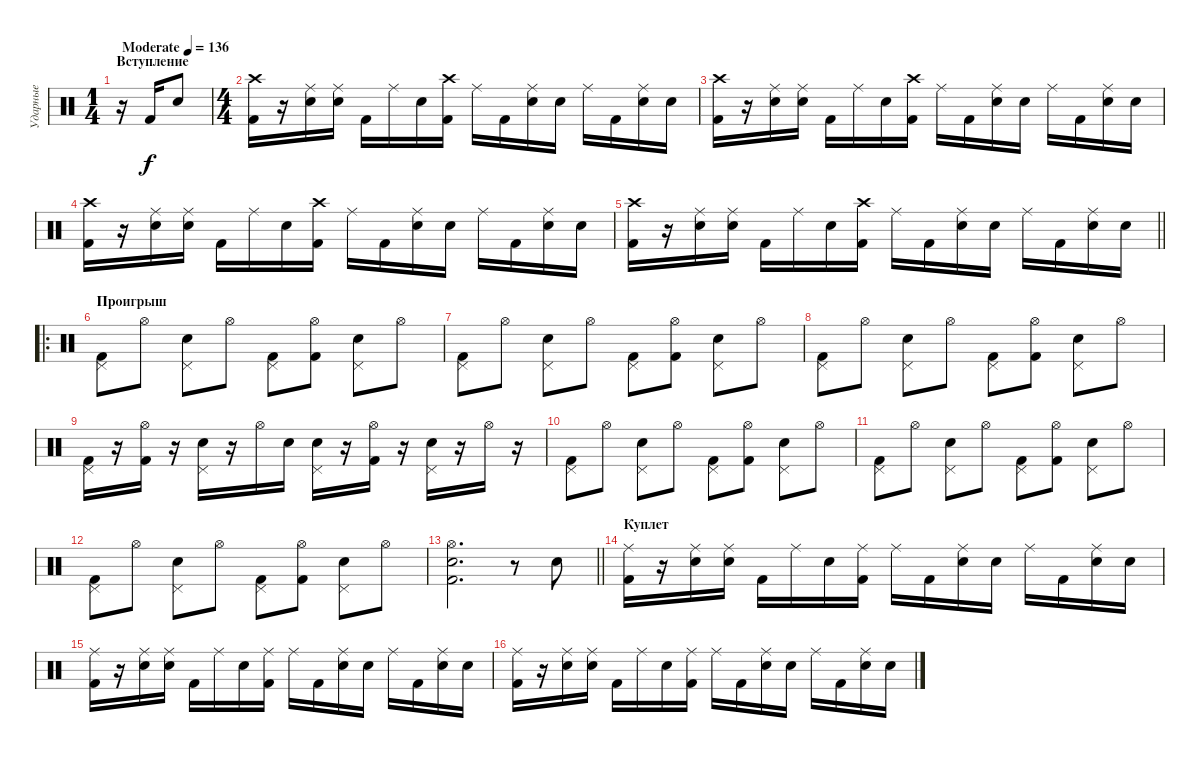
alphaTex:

\track ("Ударные" "Ударные") {instrument percussion}
\staff {score}
\articulation defaults
\ts (1 4)
\section ("" "Вступление")
\tempo (136 "Moderate")
\clef neutral
\ks c
r.16{dy f} "Kick (hit) 2".16 "Electric Snare (hit)".8 |
\ts (4 4)
("Kick (hit) 2" "Crash high (hit)").16 r.16 ("Electric Snare (hit)" "Ride (middle)").16 ("Electric Snare (hit)" "Ride (middle)").16 "Kick (hit) 2".16 "Ride (middle)".16 "Electric Snare (hit)".16 ("Kick (hit) 2" "Crash high (hit)").16 "Ride (middle)".16 "Kick (hit) 2".16 ("Electric Snare (hit)" "Ride (middle)").16 "Electric Snare (hit)".16 "Ride (middle)".16 "Kick (hit) 2".16 ("Electric Snare (hit)" "Ride (middle)").16 "Electric Snare (hit)".16 |
("Kick (hit) 2" "Crash high (hit)").16 r.16 ("Electric Snare (hit)" "Ride (middle)").16 ("Electric Snare (hit)" "Ride (middle)").16 "Kick (hit) 2".16 "Ride (middle)".16 "Electric Snare (hit)".16 ("Kick (hit) 2" "Crash high (hit)").16 "Ride (middle)".16 "Kick (hit) 2".16 ("Electric Snare (hit)" "Ride (middle)").16 "Electric Snare (hit)".16 "Ride (middle)".16 "Kick (hit) 2".16 ("Electric Snare (hit)" "Ride (middle)").16 "Electric Snare (hit)".16 |
("Kick (hit) 2" "Crash high (hit)").16 r.16 ("Electric Snare (hit)" "Ride (middle)").16 ("Electric Snare (hit)" "Ride (middle)").16 "Kick (hit) 2".16 "Ride (middle)".16 "Electric Snare (hit)".16 ("Kick (hit) 2" "Crash high (hit)").16 "Ride (middle)".16 "Kick (hit) 2".16 ("Electric Snare (hit)" "Ride (middle)").16 "Electric Snare (hit)".16 "Ride (middle)".16 "Kick (hit) 2".16 ("Electric Snare (hit)" "Ride (middle)").16 "Electric Snare (hit)".16 |
\barLineRight lightlight
("Kick (hit) 2" "Crash high (hit)").16 r.16 ("Electric Snare (hit)" "Ride (middle)").16 ("Electric Snare (hit)" "Ride (middle)").16 "Kick (hit) 2".16 "Ride (middle)".16 "Electric Snare (hit)".16 ("Kick (hit) 2" "Crash high (hit)").16 "Ride (middle)".16 "Kick (hit) 2".16 ("Electric Snare (hit)" "Ride (middle)").16 "Electric Snare (hit)".16 "Ride (middle)".16 "Kick (hit) 2".16 ("Electric Snare (hit)" "Ride (middle)").16 "Electric Snare (hit)".16 |
\ro
\section ("" "Проигрыш")
("Kick (hit) 2" "Pedal Hi-Hat (hit)").8 "Hi-Hat (open)".8 ("Electric Snare (hit)" "Pedal Hi-Hat (hit)").8 "Hi-Hat (open)".8 ("Kick (hit) 2" "Pedal Hi-Hat (hit)").8 ("Kick (hit) 2" "Hi-Hat (open)").8 ("Electric Snare (hit)" "Pedal Hi-Hat (hit)").8 "Hi-Hat (open)".8 |
("Kick (hit) 2" "Pedal Hi-Hat (hit)").8 "Hi-Hat (open)".8 ("Electric Snare (hit)" "Pedal Hi-Hat (hit)").8 "Hi-Hat (open)".8 ("Kick (hit) 2" "Pedal Hi-Hat (hit)").8 ("Kick (hit) 2" "Hi-Hat (open)").8 ("Electric Snare (hit)" "Pedal Hi-Hat (hit)").8 "Hi-Hat (open)".8 |
("Kick (hit) 2" "Pedal Hi-Hat (hit)").8 "Hi-Hat (open)".8 ("Electric Snare (hit)" "Pedal Hi-Hat (hit)").8 "Hi-Hat (open)".8 ("Kick (hit) 2" "Pedal Hi-Hat (hit)").8 ("Kick (hit) 2" "Hi-Hat (open)").8 ("Electric Snare (hit)" "Pedal Hi-Hat (hit)").8 "Hi-Hat (open)".8 |
("Kick (hit) 2" "Pedal Hi-Hat (hit)").16 r.16 ("Kick (hit) 2" "Hi-Hat (open)").16 r.16 ("Electric Snare (hit)" "Pedal Hi-Hat (hit)").16 r.16 "Hi-Hat (open)".16 "Electric Snare (hit)".16 ("Electric Snare (hit)" "Pedal Hi-Hat (hit)").16 r.16 ("Kick (hit) 2" "Hi-Hat (open)").16 r.16 ("Electric Snare (hit)" "Pedal Hi-Hat (hit)").16 r.16 "Hi-Hat (open)".16 r.16 |
("Kick (hit) 2" "Pedal Hi-Hat (hit)").8 "Hi-Hat (open)".8 ("Electric Snare (hit)" "Pedal Hi-Hat (hit)").8 "Hi-Hat (open)".8 ("Kick (hit) 2" "Pedal Hi-Hat (hit)").8 ("Kick (hit) 2" "Hi-Hat (open)").8 ("Electric Snare (hit)" "Pedal Hi-Hat (hit)").8 "Hi-Hat (open)".8 |
("Kick (hit) 2" "Pedal Hi-Hat (hit)").8 "Hi-Hat (open)".8 ("Electric Snare (hit)" "Pedal Hi-Hat (hit)").8 "Hi-Hat (open)".8 ("Kick (hit) 2" "Pedal Hi-Hat (hit)").8 ("Kick (hit) 2" "Hi-Hat (open)").8 ("Electric Snare (hit)" "Pedal Hi-Hat (hit)").8 "Hi-Hat (open)".8 |
("Kick (hit) 2" "Pedal Hi-Hat (hit)").8 "Hi-Hat (open)".8 ("Electric Snare (hit)" "Pedal Hi-Hat (hit)").8 "Hi-Hat (open)".8 ("Kick (hit) 2" "Pedal Hi-Hat (hit)").8 ("Kick (hit) 2" "Hi-Hat (open)").8 ("Electric Snare (hit)" "Pedal Hi-Hat (hit)").8 "Hi-Hat (open)".8 |
\barLineRight lightlight
("Electric Snare (hit)" "Kick (hit) 2" "Hi-Hat (open)").2{d} r.8 "Electric Snare (hit)".8 |
\section ("" "Куплет")
("Kick (hit) 2" "Ride (middle)").16 r.16 ("Electric Snare (hit)" "Ride (middle)").16 ("Electric Snare (hit)" "Ride (middle)").16 "Kick (hit) 2".16 "Ride (middle)".16 "Electric Snare (hit)".16 ("Kick (hit) 2" "Ride (middle)").16 "Ride (middle)".16 "Kick (hit) 2".16 ("Electric Snare (hit)" "Ride (middle)").16 "Electric Snare (hit)".16 "Ride (middle)".16 "Kick (hit) 2".16 ("Electric Snare (hit)" "Ride (middle)").16 "Electric Snare (hit)".16 |
("Kick (hit) 2" "Ride (middle)").16 r.16 ("Electric Snare (hit)" "Ride (middle)").16 ("Electric Snare (hit)" "Ride (middle)").16 "Kick (hit) 2".16 "Ride (middle)".16 "Electric Snare (hit)".16 ("Kick (hit) 2" "Ride (middle)").16 "Ride (middle)".16 "Kick (hit) 2".16 ("Electric Snare (hit)" "Ride (middle)").16 "Electric Snare (hit)".16 "Ride (middle)".16 "Kick (hit) 2".16 ("Electric Snare (hit)" "Ride (middle)").16 "Electric Snare (hit)".16 |
("Kick (hit) 2" "Ride (middle)").16 r.16 ("Electric Snare (hit)" "Ride (middle)").16 ("Electric Snare (hit)" "Ride (middle)").16 "Kick (hit) 2".16 "Ride (middle)".16 "Electric Snare (hit)".16 ("Kick (hit) 2" "Ride (middle)").16 "Ride (middle)".16 "Kick (hit) 2".16 ("Electric Snare (hit)" "Ride (middle)").16 "Electric Snare (hit)".16 "Ride (middle)".16 "Kick (hit) 2".16 ("Electric Snare (hit)" "Ride (middle)").16 "Electric Snare (hit)".16
